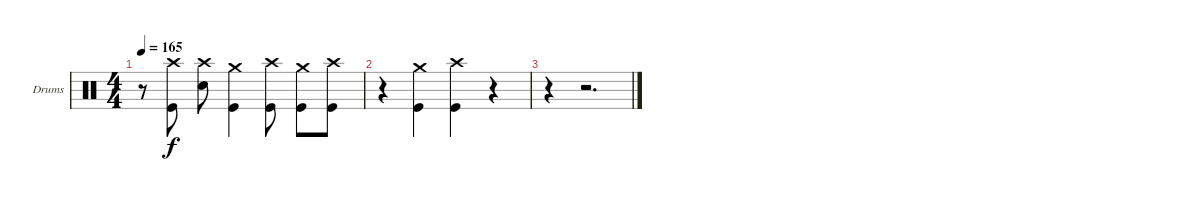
\bracketExtendMode groupsimilarinstruments
\firstSystemTrackNameOrientation horizontal
\otherSystemsTrackNameOrientation horizontal
\track ("Drumkit" "Drums") {instrument percussion}
\staff {score}
\articulation defaults
\ts (4 4)
\tempo 165
\clef neutral
\ks c
r.8{dy f} ("Kick (hit)" "Crash high (hit)").8 ("Snare (hit) 2" "Crash high (hit)").8 ("Kick (hit)" "Crash medium (hit)").4 ("Kick (hit)" "Crash high (hit)").8 ("Kick (hit)" "Crash medium (hit)").8 ("Kick (hit)" "Crash high (hit)").8 |
r.4 ("Kick (hit)" "Crash medium (hit)").4 ("Kick (hit)" "Crash high (hit)").4 r.4 |
r.4 r.2{d}
